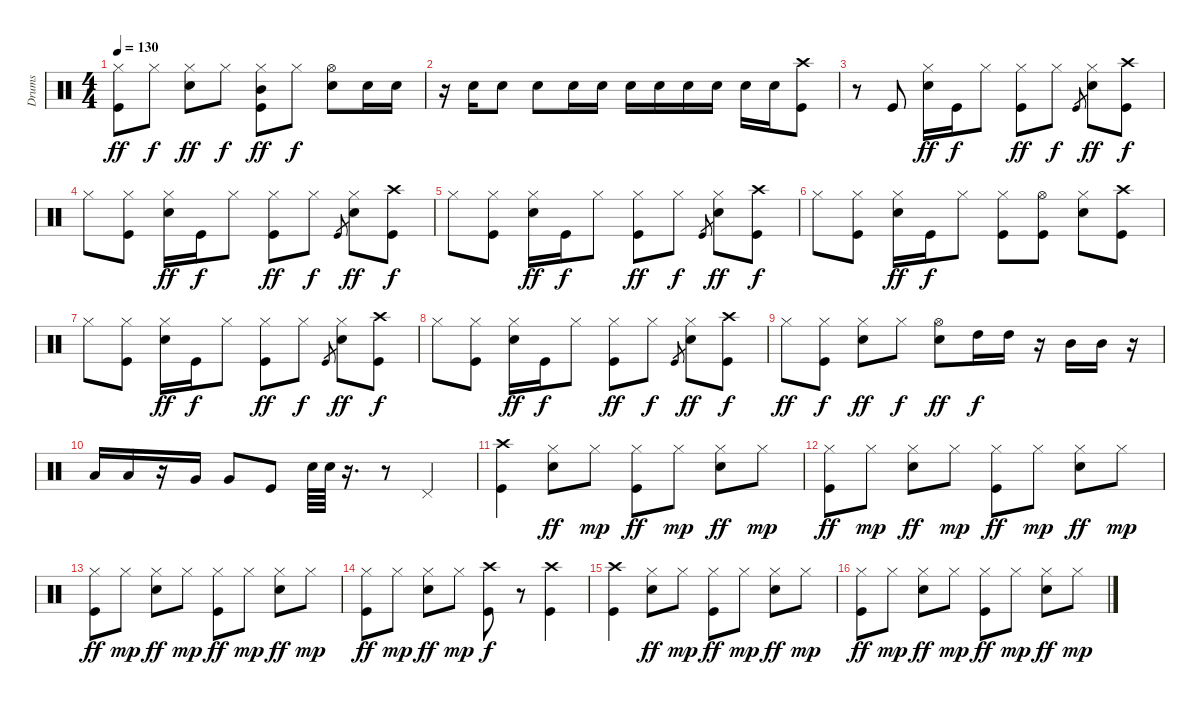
\track ("Drums" "Drums") {instrument percussion}
\staff {score}
\articulation defaults
\ts (4 4)
\tempo 130
\clef neutral
\ks c
("Hi-Hat (closed)" "Kick (hit)").8{dy ff} "Hi-Hat (closed)".8{dy f} ("Hi-Hat (closed)" "Snare (hit) 2").8{dy ff} "Hi-Hat (closed)".8{dy f} ("Hi-Hat (closed)" "Mid Tom (hit)" "Kick (hit)").8{dy ff} "Hi-Hat (closed)".8{dy f} ("Hi-Hat (open)" "Snare (hit) 2").8 "Snare (hit) 2".16 "Snare (hit) 2".16 |
r.16 "Snare (hit) 2".16 "Snare (hit) 2".8 "Snare (hit) 2".8 "Snare (hit) 2".16 "Snare (hit) 2".16 "Snare (hit) 2".16 "Snare (hit) 2".16 "Snare (hit) 2".16 "Snare (hit) 2".16 "Snare (hit) 2".16 "Snare (hit) 2".16 ("Crash high (hit)" "Kick (hit)").8 |
r.8 "Kick (hit)".8 ("Hi-Hat (closed)" "Snare (hit) 2").16{dy ff} "Kick (hit)".16{dy f} "Hi-Hat (closed)".8 ("Hi-Hat (closed)" "Kick (hit)").8{dy ff} "Hi-Hat (closed)".8{dy f} "Kick (hit)".8{gr} ("Hi-Hat (closed)" "Snare (hit) 2").8{dy ff} ("Crash high (hit)" "Kick (hit)").8{dy f} |
"Hi-Hat (closed)".8 ("Hi-Hat (closed)" "Kick (hit)").8 ("Hi-Hat (closed)" "Snare (hit) 2").16{dy ff} "Kick (hit)".16{dy f} "Hi-Hat (closed)".8 ("Hi-Hat (closed)" "Kick (hit)").8{dy ff} "Hi-Hat (closed)".8{dy f} "Kick (hit)".8{gr} ("Hi-Hat (closed)" "Snare (hit) 2").8{dy ff} ("Crash high (hit)" "Kick (hit)").8{dy f} |
"Hi-Hat (closed)".8 ("Hi-Hat (closed)" "Kick (hit)").8 ("Hi-Hat (closed)" "Snare (hit) 2").16{dy ff} "Kick (hit)".16{dy f} "Hi-Hat (closed)".8 ("Hi-Hat (closed)" "Kick (hit)").8{dy ff} "Hi-Hat (closed)".8{dy f} "Kick (hit)".8{gr} ("Hi-Hat (closed)" "Snare (hit) 2").8{dy ff} ("Crash high (hit)" "Kick (hit)").8{dy f} |
"Hi-Hat (closed)".8 ("Hi-Hat (closed)" "Kick (hit)").8 ("Hi-Hat (closed)" "Snare (hit) 2").16{dy ff} "Kick (hit)".16{dy f} "Hi-Hat (closed)".8 ("Hi-Hat (closed)" "Kick (hit)").8 ("Hi-Hat (open)" "Kick (hit)").8 ("Hi-Hat (closed)" "Snare (hit) 2").8 ("Crash high (hit)" "Kick (hit)").8 |
"Hi-Hat (closed)".8 ("Hi-Hat (closed)" "Kick (hit)").8 ("Hi-Hat (closed)" "Snare (hit) 2").16{dy ff} "Kick (hit)".16{dy f} "Hi-Hat (closed)".8 ("Hi-Hat (closed)" "Kick (hit)").8{dy ff} "Hi-Hat (closed)".8{dy f} "Kick (hit)".8{gr} ("Hi-Hat (closed)" "Snare (hit) 2").8{dy ff} ("Crash high (hit)" "Kick (hit)").8{dy f} |
"Hi-Hat (closed)".8 ("Hi-Hat (closed)" "Kick (hit)").8 ("Hi-Hat (closed)" "Snare (hit) 2").16{dy ff} "Kick (hit)".16{dy f} "Hi-Hat (closed)".8 ("Hi-Hat (closed)" "Kick (hit)").8{dy ff} "Hi-Hat (closed)".8{dy f} "Kick (hit)".8{gr} ("Hi-Hat (closed)" "Snare (hit) 2").8{dy ff} ("Crash high (hit)" "Kick (hit)").8{dy f} |
"Hi-Hat (closed)".8{dy ff} ("Hi-Hat (closed)" "Kick (hit)").8{dy f} ("Hi-Hat (closed)" "Snare (hit) 2").8{dy ff} "Hi-Hat (closed)".8{dy f} ("Hi-Hat (open)" "Snare (hit) 2").8{dy ff} "High Tom (hit)".16{dy f} "High Tom (hit)".16 r.16 "Mid Tom (hit)".16 "Mid Tom (hit)".16 r.16 |
"Low Tom (hit)".16 "Low Tom (hit)".16 r.16 "Very Low Tom (hit)".16 "Very Low Tom (hit)".8 "Kick (hit)".8 "Snare (hit) 2".64 "Snare (hit) 2".64 r.16{d} r.8 "Pedal Hi-Hat (hit)".4 |
("Crash high (hit)" "Kick (hit)").4 ("Hi-Hat (closed)" "Snare (hit) 2").8{dy ff} "Hi-Hat (closed)".8{dy mp} ("Hi-Hat (closed)" "Kick (hit)").8{dy ff} "Hi-Hat (closed)".8{dy mp} ("Hi-Hat (closed)" "Snare (hit) 2").8{dy ff} "Hi-Hat (closed)".8{dy mp} |
("Hi-Hat (closed)" "Kick (hit)").8{dy ff} "Hi-Hat (closed)".8{dy mp} ("Hi-Hat (closed)" "Snare (hit) 2").8{dy ff} "Hi-Hat (closed)".8{dy mp} ("Hi-Hat (closed)" "Kick (hit)").8{dy ff} "Hi-Hat (closed)".8{dy mp} ("Hi-Hat (closed)" "Snare (hit) 2").8{dy ff} "Hi-Hat (closed)".8{dy mp} |
("Hi-Hat (closed)" "Kick (hit)").8{dy ff} "Hi-Hat (closed)".8{dy mp} ("Hi-Hat (closed)" "Snare (hit) 2").8{dy ff} "Hi-Hat (closed)".8{dy mp} ("Hi-Hat (closed)" "Kick (hit)").8{dy ff} "Hi-Hat (closed)".8{dy mp} ("Hi-Hat (closed)" "Snare (hit) 2").8{dy ff} "Hi-Hat (closed)".8{dy mp} |
("Hi-Hat (closed)" "Kick (hit)").8{dy ff} "Hi-Hat (closed)".8{dy mp} ("Hi-Hat (closed)" "Snare (hit) 2").8{dy ff} "Hi-Hat (closed)".8{dy mp} ("Crash high (hit)" "Kick (hit)").8{dy f} r.8 ("Crash high (hit)" "Kick (hit)").4 |
("Crash high (hit)" "Kick (hit)").4 ("Hi-Hat (closed)" "Snare (hit) 2").8{dy ff} "Hi-Hat (closed)".8{dy mp} ("Hi-Hat (closed)" "Kick (hit)").8{dy ff} "Hi-Hat (closed)".8{dy mp} ("Hi-Hat (closed)" "Snare (hit) 2").8{dy ff} "Hi-Hat (closed)".8{dy mp} |
("Hi-Hat (closed)" "Kick (hit)").8{dy ff} "Hi-Hat (closed)".8{dy mp} ("Hi-Hat (closed)" "Snare (hit) 2").8{dy ff} "Hi-Hat (closed)".8{dy mp} ("Hi-Hat (closed)" "Kick (hit)").8{dy ff} "Hi-Hat (closed)".8{dy mp} ("Hi-Hat (closed)" "Snare (hit) 2").8{dy ff} "Hi-Hat (closed)".8{dy mp}
